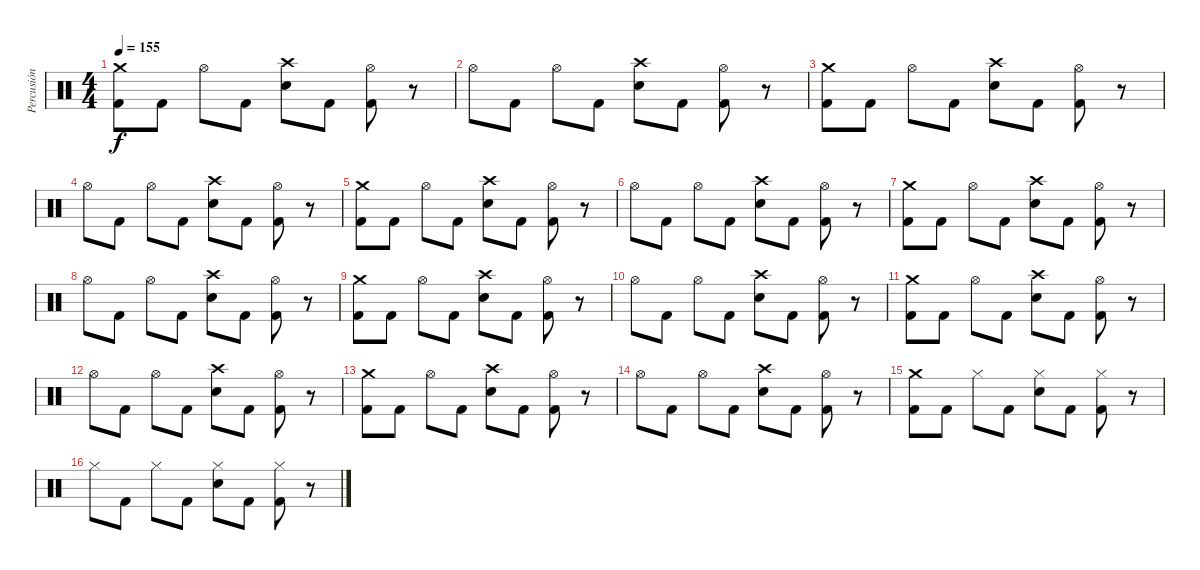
\track ("Percusión" "Percusión") {instrument percussion}
\staff {score}
\articulation defaults
\ts (4 4)
\tempo 155
\clef neutral
\ks c
("Crash medium (hit)" "Kick (hit) 2").8{dy f} "Kick (hit) 2".8 "Hi-Hat (open)".8 "Kick (hit) 2".8 ("Crash high (hit)" "Electric Snare (hit)").8 "Kick (hit) 2".8 ("Hi-Hat (open)" "Kick (hit) 2").8 r.8 |
"Hi-Hat (open)".8 "Kick (hit) 2".8 "Hi-Hat (open)".8 "Kick (hit) 2".8 ("Crash high (hit)" "Electric Snare (hit)").8 "Kick (hit) 2".8 ("Hi-Hat (open)" "Kick (hit) 2").8 r.8 |
("Crash medium (hit)" "Kick (hit) 2").8 "Kick (hit) 2".8 "Hi-Hat (open)".8 "Kick (hit) 2".8 ("Crash high (hit)" "Electric Snare (hit)").8 "Kick (hit) 2".8 ("Hi-Hat (open)" "Kick (hit) 2").8 r.8 |
"Hi-Hat (open)".8 "Kick (hit) 2".8 "Hi-Hat (open)".8 "Kick (hit) 2".8 ("Crash high (hit)" "Electric Snare (hit)").8 "Kick (hit) 2".8 ("Hi-Hat (open)" "Kick (hit) 2").8 r.8 |
("Crash medium (hit)" "Kick (hit) 2").8 "Kick (hit) 2".8 "Hi-Hat (open)".8 "Kick (hit) 2".8 ("Crash high (hit)" "Electric Snare (hit)").8 "Kick (hit) 2".8 ("Hi-Hat (open)" "Kick (hit) 2").8 r.8 |
"Hi-Hat (open)".8 "Kick (hit) 2".8 "Hi-Hat (open)".8 "Kick (hit) 2".8 ("Crash high (hit)" "Electric Snare (hit)").8 "Kick (hit) 2".8 ("Hi-Hat (open)" "Kick (hit) 2").8 r.8 |
("Crash medium (hit)" "Kick (hit) 2").8 "Kick (hit) 2".8 "Hi-Hat (open)".8 "Kick (hit) 2".8 ("Crash high (hit)" "Electric Snare (hit)").8 "Kick (hit) 2".8 ("Hi-Hat (open)" "Kick (hit) 2").8 r.8 |
"Hi-Hat (open)".8 "Kick (hit) 2".8 "Hi-Hat (open)".8 "Kick (hit) 2".8 ("Crash high (hit)" "Electric Snare (hit)").8 "Kick (hit) 2".8 ("Hi-Hat (open)" "Kick (hit) 2").8 r.8 |
("Crash medium (hit)" "Kick (hit) 2").8 "Kick (hit) 2".8 "Hi-Hat (open)".8 "Kick (hit) 2".8 ("Crash high (hit)" "Electric Snare (hit)").8 "Kick (hit) 2".8 ("Hi-Hat (open)" "Kick (hit) 2").8 r.8 |
"Hi-Hat (open)".8 "Kick (hit) 2".8 "Hi-Hat (open)".8 "Kick (hit) 2".8 ("Crash high (hit)" "Electric Snare (hit)").8 "Kick (hit) 2".8 ("Hi-Hat (open)" "Kick (hit) 2").8 r.8 |
("Crash medium (hit)" "Kick (hit) 2").8 "Kick (hit) 2".8 "Hi-Hat (open)".8 "Kick (hit) 2".8 ("Crash high (hit)" "Electric Snare (hit)").8 "Kick (hit) 2".8 ("Hi-Hat (open)" "Kick (hit) 2").8 r.8 |
"Hi-Hat (open)".8 "Kick (hit) 2".8 "Hi-Hat (open)".8 "Kick (hit) 2".8 ("Crash high (hit)" "Electric Snare (hit)").8 "Kick (hit) 2".8 ("Hi-Hat (open)" "Kick (hit) 2").8 r.8 |
("Crash medium (hit)" "Kick (hit) 2").8 "Kick (hit) 2".8 "Hi-Hat (open)".8 "Kick (hit) 2".8 ("Crash high (hit)" "Electric Snare (hit)").8 "Kick (hit) 2".8 ("Hi-Hat (open)" "Kick (hit) 2").8 r.8 |
"Hi-Hat (open)".8 "Kick (hit) 2".8 "Hi-Hat (open)".8 "Kick (hit) 2".8 ("Crash high (hit)" "Electric Snare (hit)").8 "Kick (hit) 2".8 ("Hi-Hat (open)" "Kick (hit) 2").8 r.8 |
("Crash medium (hit)" "Kick (hit) 2").8 "Kick (hit) 2".8 "Hi-Hat (closed)".8 "Kick (hit) 2".8 ("Hi-Hat (closed)" "Electric Snare (hit)").8 "Kick (hit) 2".8 ("Hi-Hat (closed)" "Kick (hit) 2").8 r.8 |
"Hi-Hat (closed)".8 "Kick (hit) 2".8 "Hi-Hat (closed)".8 "Kick (hit) 2".8 ("Hi-Hat (closed)" "Electric Snare (hit)").8 "Kick (hit) 2".8 ("Hi-Hat (closed)" "Kick (hit) 2").8 r.8
